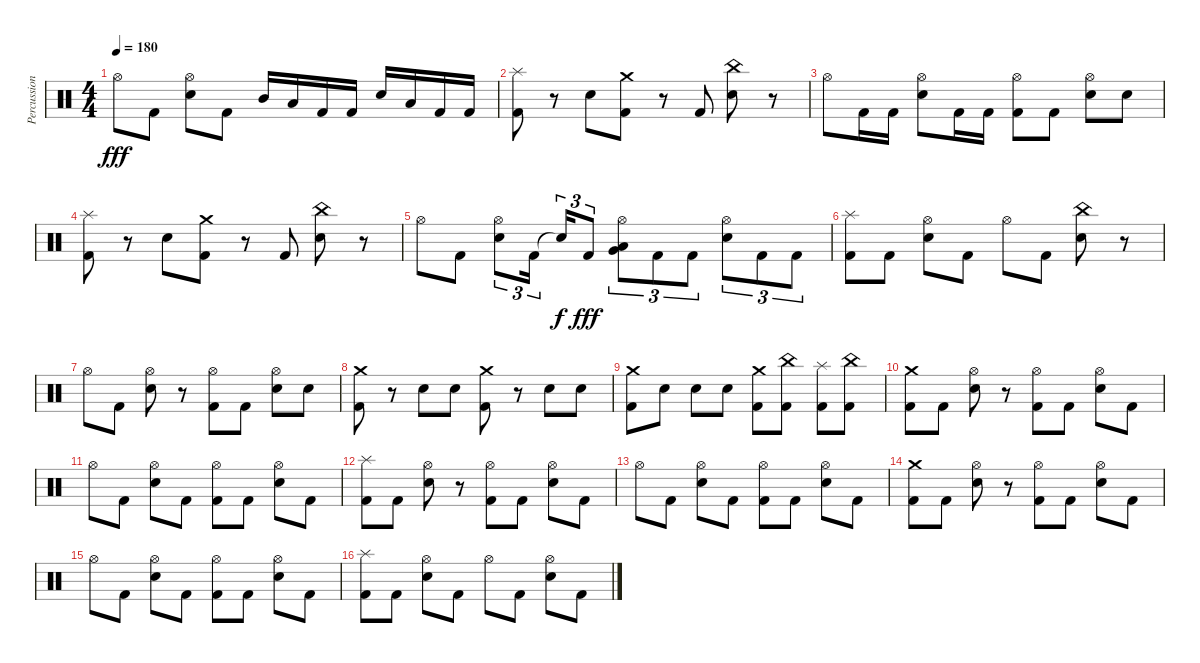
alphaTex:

\track ("Percussion" "Percussion") {instrument percussion}
\staff {score}
\articulation defaults
\ts (4 4)
\tempo 180
\clef neutral
\ks c "Hi-Hat (open)".8{dy fff} "Kick (hit) 2".8
("Hi-Hat (open)" "Snare (hit) 2").8 "Kick (hit) 2".8 "Mid Tom (hit)".16 "Low Tom (hit)".16 "Kick (hit) 2".16 "Kick (hit) 2".16 "Snare (hit) 2".16 "Low Tom (hit)".16 "Kick (hit) 2".16 "Kick (hit) 2".16 |
("Kick (hit) 2" "Splash (hit)").8 r.8 "Snare (hit) 2".8 ("Kick (hit) 2" "Crash medium (hit)").8 r.8 "Kick (hit) 2".8 ("Snare (hit) 2" "China (hit)").8 r.8 |
"Hi-Hat (open)".8 "Kick (hit) 2".16 "Kick (hit) 2".16 ("Hi-Hat (open)" "Snare (hit) 2").8 "Kick (hit) 2".16 "Kick (hit) 2".16 ("Hi-Hat (open)" "Kick (hit) 2").8 "Kick (hit) 2".8 ("Hi-Hat (open)" "Snare (hit) 2").8 "Snare (hit) 2".8 |
("Kick (hit) 2" "Splash (hit)").8 r.8 "Snare (hit) 2".8 ("Kick (hit) 2" "Crash medium (hit)").8 r.8 "Kick (hit) 2".8 ("Snare (hit) 2" "China (hit)").8 r.8 |
"Hi-Hat (open)".8 "Kick (hit) 2".8 ("Snare (hit) 2" "Hi-Hat (open)").8{tu (3 2)} "Kick (hit) 2".16{tu (3 2) beam splitsecondary} "Snare (hit)"{t}.16{tu (3 2) dy f} "Kick (hit) 2".8{tu (3 2) dy fff} ("Very Low Tom (hit)" "Low Tom (hit)" "Hi-Hat (open)").8{tu (3 2)} "Kick (hit) 2".8{tu (3 2)} "Kick (hit) 2".8{tu (3 2)} ("Snare (hit) 2" "Hi-Hat (open)").8{tu (3 2)} "Kick (hit) 2".8{tu (3 2)} "Kick (hit) 2".8{tu (3 2)} |
("Kick (hit) 2" "Splash (hit)").8 "Kick (hit) 2".8 ("Hi-Hat (open)" "Snare (hit) 2").8 "Kick (hit) 2".8 "Hi-Hat (open)".8 "Kick (hit) 2".8 ("Snare (hit) 2" "China (hit)").8 r.8 |
"Hi-Hat (open)".8 "Kick (hit) 2".8 ("Hi-Hat (open)" "Snare (hit) 2").8 r.8 ("Hi-Hat (open)" "Kick (hit) 2").8 "Kick (hit) 2".8 ("Hi-Hat (open)" "Snare (hit) 2").8 "Snare (hit) 2".8 |
("Kick (hit) 2" "Crash medium (hit)").8 r.8 "Snare (hit) 2".8 "Snare (hit) 2".8 ("Kick (hit) 2" "Crash medium (hit)").8 r.8 "Snare (hit) 2".8 "Snare (hit) 2".8 |
("Kick (hit) 2" "Crash medium (hit)").8 "Snare (hit) 2".8 "Snare (hit) 2".8 "Snare (hit) 2".8 ("Kick (hit) 2" "Crash medium (hit)").8 ("Kick (hit) 2" "China (hit)").8 ("Kick (hit) 2" "Splash (hit)").8 ("Kick (hit) 2" "China (hit)").8 |
("Kick (hit) 2" "Crash medium (hit)").8 "Kick (hit) 2".8 ("Hi-Hat (open)" "Snare (hit) 2").8 r.8 ("Hi-Hat (open)" "Kick (hit) 2").8 "Kick (hit) 2".8 ("Hi-Hat (open)" "Snare (hit) 2").8 "Kick (hit) 2".8 |
"Hi-Hat (open)".8 "Kick (hit) 2".8 ("Hi-Hat (open)" "Snare (hit) 2").8 "Kick (hit) 2".8 ("Hi-Hat (open)" "Kick (hit) 2").8 "Kick (hit) 2".8 ("Hi-Hat (open)" "Snare (hit) 2").8 "Kick (hit) 2".8 |
("Kick (hit) 2" "Splash (hit)").8 "Kick (hit) 2".8 ("Hi-Hat (open)" "Snare (hit) 2").8 r.8 ("Hi-Hat (open)" "Kick (hit) 2").8 "Kick (hit) 2".8 ("Hi-Hat (open)" "Snare (hit) 2").8 "Kick (hit) 2".8 |
"Hi-Hat (open)".8 "Kick (hit) 2".8 ("Hi-Hat (open)" "Snare (hit) 2").8 "Kick (hit) 2".8 ("Kick (hit) 2" "Hi-Hat (open)").8 "Kick (hit) 2".8 ("Hi-Hat (open)" "Snare (hit) 2").8 "Kick (hit) 2".8 |
("Kick (hit) 2" "Crash medium (hit)").8 "Kick (hit) 2".8 ("Hi-Hat (open)" "Snare (hit) 2").8 r.8 ("Hi-Hat (open)" "Kick (hit) 2").8 "Kick (hit) 2".8 ("Hi-Hat (open)" "Snare (hit) 2").8 "Kick (hit) 2".8 |
"Hi-Hat (open)".8 "Kick (hit) 2".8 ("Hi-Hat (open)" "Snare (hit) 2").8 "Kick (hit) 2".8 ("Hi-Hat (open)" "Kick (hit) 2").8 "Kick (hit) 2".8 ("Hi-Hat (open)" "Snare (hit) 2").8 "Kick (hit) 2".8 |
("Kick (hit) 2" "Splash (hit)").8 "Kick (hit) 2".8 ("Hi-Hat (open)" "Snare (hit) 2").8 "Kick (hit) 2".8 "Hi-Hat (open)".8 "Kick (hit) 2".8 ("Hi-Hat (open)" "Snare (hit) 2").8 "Kick (hit) 2".8
